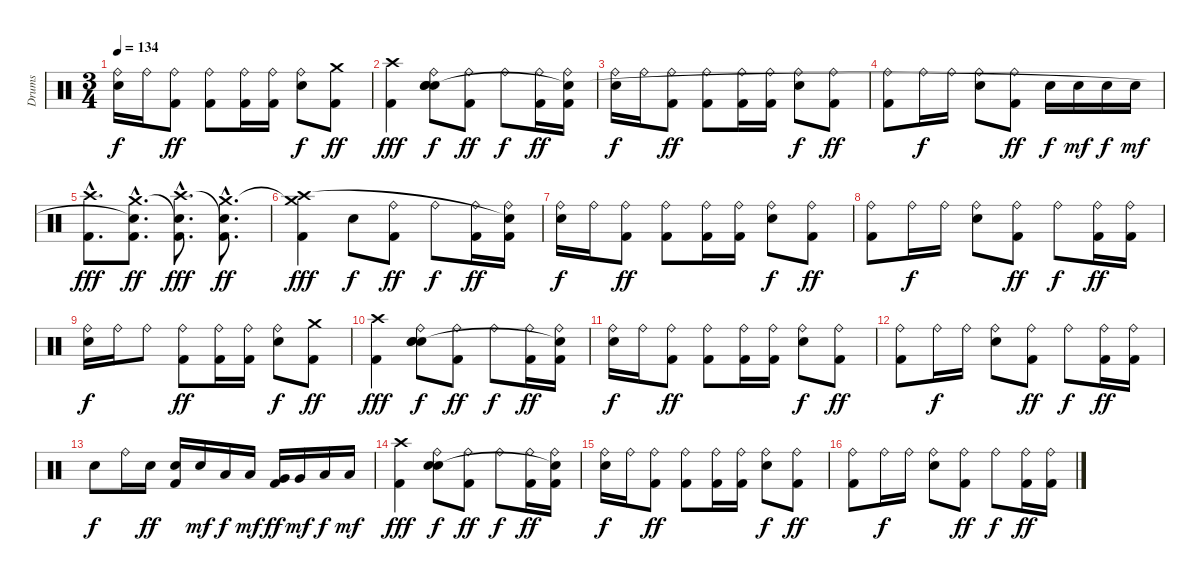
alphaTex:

\track ("Drums" "Drums") {instrument percussion}
\staff {score}
\articulation defaults
\ts (3 4)
\tempo 134
\clef neutral
\ks c
("Ride (bell)" "Snare (hit) 2").16{dy f} "Ride (bell)".16 ("Ride (bell)" "Kick (hit) 2").8{dy ff} ("Ride (bell)" "Kick (hit) 2").8 ("Ride (bell)" "Kick (hit) 2").16 ("Ride (bell)" "Kick (hit) 2").16 ("Ride (bell)" "Snare (hit) 2").8{dy f} ("Crash medium (hit)" "Kick (hit) 2").8{dy ff} |
("Kick (hit) 2" "Crash high (hit)").4{dy fff} ("Ride (bell)" "Snare (hit) 2" "Snare (hit)" "Snare (hit)").8{dy f} ("Ride (bell)" "Kick (hit) 2").8{dy ff} "Ride (bell)".8{dy f} ("Ride (bell)" "Kick (hit) 2").16{dy ff} ("Ride (bell)" "Kick (hit) 2" "Snare (hit)"{t}).16 |
("Ride (bell)" "Snare (hit) 2").16{dy f} "Ride (bell)".16 ("Ride (bell)" "Kick (hit) 2").8{dy ff} ("Ride (bell)" "Kick (hit) 2").8 ("Ride (bell)" "Kick (hit) 2").16 ("Ride (bell)" "Kick (hit) 2").16 ("Ride (bell)" "Snare (hit) 2").8{dy f} ("Ride (bell)" "Kick (hit) 2").8{dy ff} |
("Ride (bell)" "Kick (hit) 2").8 "Ride (bell)".16{dy f} "Ride (bell)".16 ("Ride (bell)" "Snare (hit) 2").8 ("Ride (bell)" "Kick (hit) 2").8{dy ff} "Snare (hit) 2".16{dy f} "Snare (hit) 2".16{dy mf} "Snare (hit) 2".16{dy f} "Snare (hit) 2".16{dy mf} |
("Kick (hit) 2"{hac} "Crash high (hit)"{hac}).8{d dy fff} ("Crash medium (hit)"{hac} "Kick (hit) 2"{hac} "Snare (hit)"{hac t}).8{d dy ff} ("Snare (hit)"{hac t} "Kick (hit) 2"{hac} "Crash high (hit)"{hac}).8{d dy fff} ("Crash medium (hit)"{hac} "Kick (hit) 2"{hac} "Snare (hit)"{hac t}).8{d dy ff} |
("Crash medium (hit)"{t} "Kick (hit) 2" "Crash high (hit)").4{dy fff} "Snare (hit) 2".8{dy f} ("Ride (bell)" "Kick (hit) 2").8{dy ff} "Ride (bell)".8{dy f} ("Ride (bell)" "Kick (hit) 2").16{dy ff} ("Ride (bell)" "Kick (hit) 2" "Snare (hit)"{t}).16 |
("Ride (bell)" "Snare (hit) 2").16{dy f} "Ride (bell)".16 ("Ride (bell)" "Kick (hit) 2").8{dy ff} ("Ride (bell)" "Kick (hit) 2").8 ("Ride (bell)" "Kick (hit) 2").16 ("Ride (bell)" "Kick (hit) 2").16 ("Ride (bell)" "Snare (hit) 2").8{dy f} ("Ride (bell)" "Kick (hit) 2").8{dy ff} |
("Ride (bell)" "Kick (hit) 2").8 "Ride (bell)".16{dy f} "Ride (bell)".16 ("Ride (bell)" "Snare (hit) 2").8 ("Ride (bell)" "Kick (hit) 2").8{dy ff} "Ride (bell)".8{dy f} ("Ride (bell)" "Kick (hit) 2").16{dy ff} ("Ride (bell)" "Kick (hit) 2").16 |
("Ride (bell)" "Snare (hit) 2").16{dy f} "Ride (bell)".16 "Ride (bell)".8 ("Ride (bell)" "Kick (hit) 2").8{dy ff} ("Ride (bell)" "Kick (hit) 2").16 ("Ride (bell)" "Kick (hit) 2").16 ("Ride (bell)" "Snare (hit) 2").8{dy f} ("Crash medium (hit)" "Kick (hit) 2").8{dy ff} |
("Kick (hit) 2" "Crash high (hit)").4{dy fff} ("Ride (bell)" "Snare (hit) 2" "Snare (hit)" "Snare (hit)").8{dy f} ("Ride (bell)" "Kick (hit) 2").8{dy ff} "Ride (bell)".8{dy f} ("Ride (bell)" "Kick (hit) 2").16{dy ff} ("Ride (bell)" "Kick (hit) 2" "Snare (hit)"{t}).16 |
("Ride (bell)" "Snare (hit) 2").16{dy f} "Ride (bell)".16 ("Ride (bell)" "Kick (hit) 2").8{dy ff} ("Ride (bell)" "Kick (hit) 2").8 ("Ride (bell)" "Kick (hit) 2").16 ("Ride (bell)" "Kick (hit) 2").16 ("Ride (bell)" "Snare (hit) 2").8{dy f} ("Ride (bell)" "Kick (hit) 2").8{dy ff} |
("Ride (bell)" "Kick (hit) 2").8 "Ride (bell)".16{dy f} "Ride (bell)".16 ("Ride (bell)" "Snare (hit) 2").8 ("Ride (bell)" "Kick (hit) 2").8{dy ff} "Ride (bell)".8{dy f} ("Ride (bell)" "Kick (hit) 2").16{dy ff} ("Ride (bell)" "Kick (hit) 2").16 |
"Snare (hit) 2".8{dy f} "Ride (bell)".16 "Snare (hit) 2".16{dy ff} ("Snare (hit) 2" "Kick (hit) 2").16 "Snare (hit) 2".16{dy mf} "Low Tom (hit)".16{dy f} "Low Tom (hit)".16{dy mf} ("Very Low Tom (hit)" "Kick (hit) 2").16{dy ff} "Very Low Tom (hit)".16{dy mf} "Low Floor Tom (hit)".16{dy f} "Low Floor Tom (hit)".16{dy mf} |
("Kick (hit) 2" "Crash high (hit)").4{dy fff} ("Ride (bell)" "Snare (hit) 2" "Snare (hit)").8{dy f} ("Ride (bell)" "Kick (hit) 2").8{dy ff} "Ride (bell)".8{dy f} ("Ride (bell)" "Kick (hit) 2").16{dy ff} ("Ride (bell)" "Kick (hit) 2" "Snare (hit)"{t}).16 |
("Ride (bell)" "Snare (hit) 2").16{dy f} "Ride (bell)".16 ("Ride (bell)" "Kick (hit) 2").8{dy ff} ("Ride (bell)" "Kick (hit) 2").8 ("Ride (bell)" "Kick (hit) 2").16 ("Ride (bell)" "Kick (hit) 2").16 ("Ride (bell)" "Snare (hit) 2").8{dy f} ("Ride (bell)" "Kick (hit) 2").8{dy ff} |
("Ride (bell)" "Kick (hit) 2").8 "Ride (bell)".16{dy f} "Ride (bell)".16 ("Ride (bell)" "Snare (hit) 2").8 ("Ride (bell)" "Kick (hit) 2").8{dy ff} "Ride (bell)".8{dy f} ("Ride (bell)" "Kick (hit) 2").16{dy ff} ("Ride (bell)" "Kick (hit) 2").16
